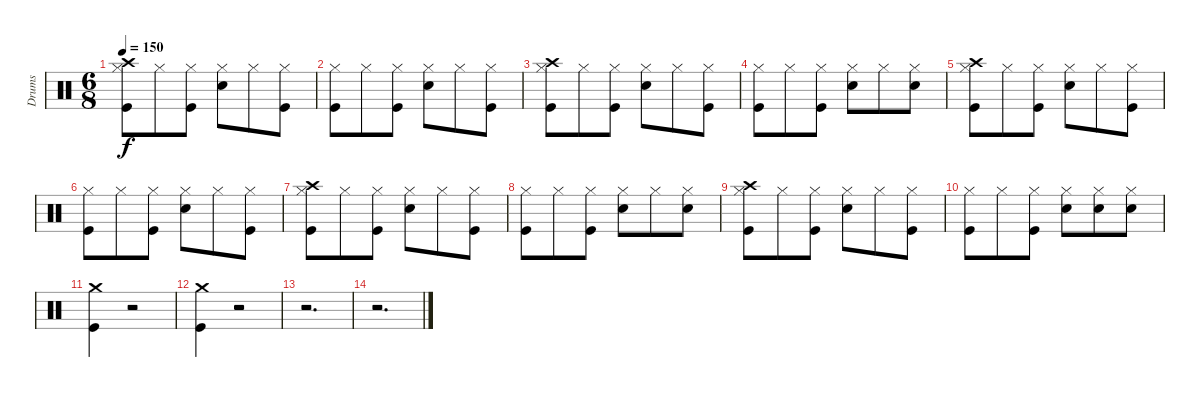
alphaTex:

\track ("Drums" "Drums") {instrument percussion}
\staff {score}
\articulation defaults
\ts (6 8)
\tempo 150
\clef neutral
\ks c
("Hi-Hat (closed)" "Crash high (hit)" "Kick (hit)").8{dy f} "Hi-Hat (closed)".8 ("Hi-Hat (closed)" "Kick (hit)").8 ("Hi-Hat (closed)" "Snare (hit) 2").8 "Hi-Hat (closed)".8 ("Hi-Hat (closed)" "Kick (hit)").8 |
("Hi-Hat (closed)" "Kick (hit)").8 "Hi-Hat (closed)".8 ("Hi-Hat (closed)" "Kick (hit)").8 ("Hi-Hat (closed)" "Snare (hit) 2").8 "Hi-Hat (closed)".8 ("Hi-Hat (closed)" "Kick (hit)").8 |
("Hi-Hat (closed)" "Crash high (hit)" "Kick (hit)").8 "Hi-Hat (closed)".8 ("Hi-Hat (closed)" "Kick (hit)").8 ("Hi-Hat (closed)" "Snare (hit) 2").8 "Hi-Hat (closed)".8 ("Hi-Hat (closed)" "Kick (hit)").8 |
("Hi-Hat (closed)" "Kick (hit)").8 "Hi-Hat (closed)".8 ("Hi-Hat (closed)" "Kick (hit)").8 ("Hi-Hat (closed)" "Snare (hit) 2").8 "Hi-Hat (closed)".8 ("Hi-Hat (closed)" "Snare (hit) 2").8 |
("Hi-Hat (closed)" "Crash high (hit)" "Kick (hit)").8 "Hi-Hat (closed)".8 ("Hi-Hat (closed)" "Kick (hit)").8 ("Hi-Hat (closed)" "Snare (hit) 2").8 "Hi-Hat (closed)".8 ("Hi-Hat (closed)" "Kick (hit)").8 |
("Hi-Hat (closed)" "Kick (hit)").8 "Hi-Hat (closed)".8 ("Hi-Hat (closed)" "Kick (hit)").8 ("Hi-Hat (closed)" "Snare (hit) 2").8 "Hi-Hat (closed)".8 ("Hi-Hat (closed)" "Kick (hit)").8 |
("Hi-Hat (closed)" "Crash high (hit)" "Kick (hit)").8 "Hi-Hat (closed)".8 ("Hi-Hat (closed)" "Kick (hit)").8 ("Hi-Hat (closed)" "Snare (hit) 2").8 "Hi-Hat (closed)".8 ("Hi-Hat (closed)" "Kick (hit)").8 |
("Hi-Hat (closed)" "Kick (hit)").8 "Hi-Hat (closed)".8 ("Hi-Hat (closed)" "Kick (hit)").8 ("Hi-Hat (closed)" "Snare (hit) 2").8 "Hi-Hat (closed)".8 ("Hi-Hat (closed)" "Snare (hit) 2").8 |
("Hi-Hat (closed)" "Crash high (hit)" "Kick (hit)").8 "Hi-Hat (closed)".8 ("Hi-Hat (closed)" "Kick (hit)").8 ("Hi-Hat (closed)" "Snare (hit) 2").8 "Hi-Hat (closed)".8 ("Hi-Hat (closed)" "Kick (hit)").8 |
("Hi-Hat (closed)" "Kick (hit)").8 "Hi-Hat (closed)".8 ("Hi-Hat (closed)" "Kick (hit)").8 ("Hi-Hat (closed)" "Snare (hit) 2").8 ("Hi-Hat (closed)" "Snare (hit) 2").8 ("Hi-Hat (closed)" "Snare (hit) 2").8 |
("Crash medium (hit)" "Kick (hit)").4 r.2 |
("Crash medium (hit)" "Kick (hit)").4 r.2 |
r.2{d} |
r.2{d}
